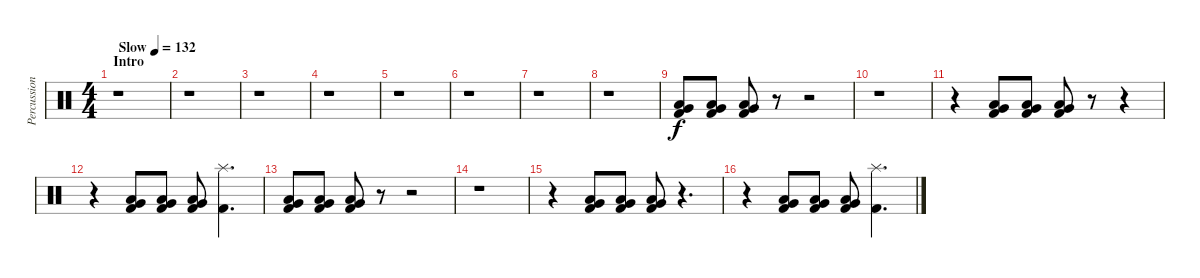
\track ("Percussion" "Percussion") {instrument percussion}
\staff {score}
\articulation defaults
\ts (4 4)
\section ("" "Intro")
\tempo (132 "Slow")
\clef neutral
\ks c
r.1{dy f} |
r.1 |
r.1 |
r.1 |
r.1 |
r.1 |
r.1 |
r.1 |
("Very Low Tom (hit)" "Low Floor Tom (hit)" "Kick (hit) 2").8 ("Very Low Tom (hit)" "Low Floor Tom (hit)" "Kick (hit) 2").8 ("Very Low Tom (hit)" "Low Floor Tom (hit)" "Kick (hit) 2").8 r.8 r.2 |
r.1 |
r.4 ("Very Low Tom (hit)" "Low Floor Tom (hit)" "Kick (hit) 2").8 ("Very Low Tom (hit)" "Low Floor Tom (hit)" "Kick (hit) 2").8 ("Very Low Tom (hit)" "Low Floor Tom (hit)" "Kick (hit) 2").8 r.8 r.4 |
r.4 ("Very Low Tom (hit)" "Low Floor Tom (hit)" "Kick (hit) 2").8 ("Very Low Tom (hit)" "Low Floor Tom (hit)" "Kick (hit) 2").8 ("Very Low Tom (hit)" "Low Floor Tom (hit)" "Kick (hit) 2").8 ("Splash (hit)" "Kick (hit) 2").4{d} |
("Very Low Tom (hit)" "Low Floor Tom (hit)" "Kick (hit) 2").8 ("Very Low Tom (hit)" "Low Floor Tom (hit)" "Kick (hit) 2").8 ("Very Low Tom (hit)" "Low Floor Tom (hit)" "Kick (hit) 2").8 r.8 r.2 |
r.1 |
r.4 ("Very Low Tom (hit)" "Low Floor Tom (hit)" "Kick (hit) 2").8 ("Very Low Tom (hit)" "Low Floor Tom (hit)" "Kick (hit) 2").8 ("Very Low Tom (hit)" "Low Floor Tom (hit)" "Kick (hit) 2").8 r.4{d} |
r.4 ("Very Low Tom (hit)" "Low Floor Tom (hit)" "Kick (hit) 2").8 ("Very Low Tom (hit)" "Low Floor Tom (hit)" "Kick (hit) 2").8 ("Very Low Tom (hit)" "Low Floor Tom (hit)" "Kick (hit) 2").8 ("Splash (hit)" "Kick (hit) 2").4{d}
